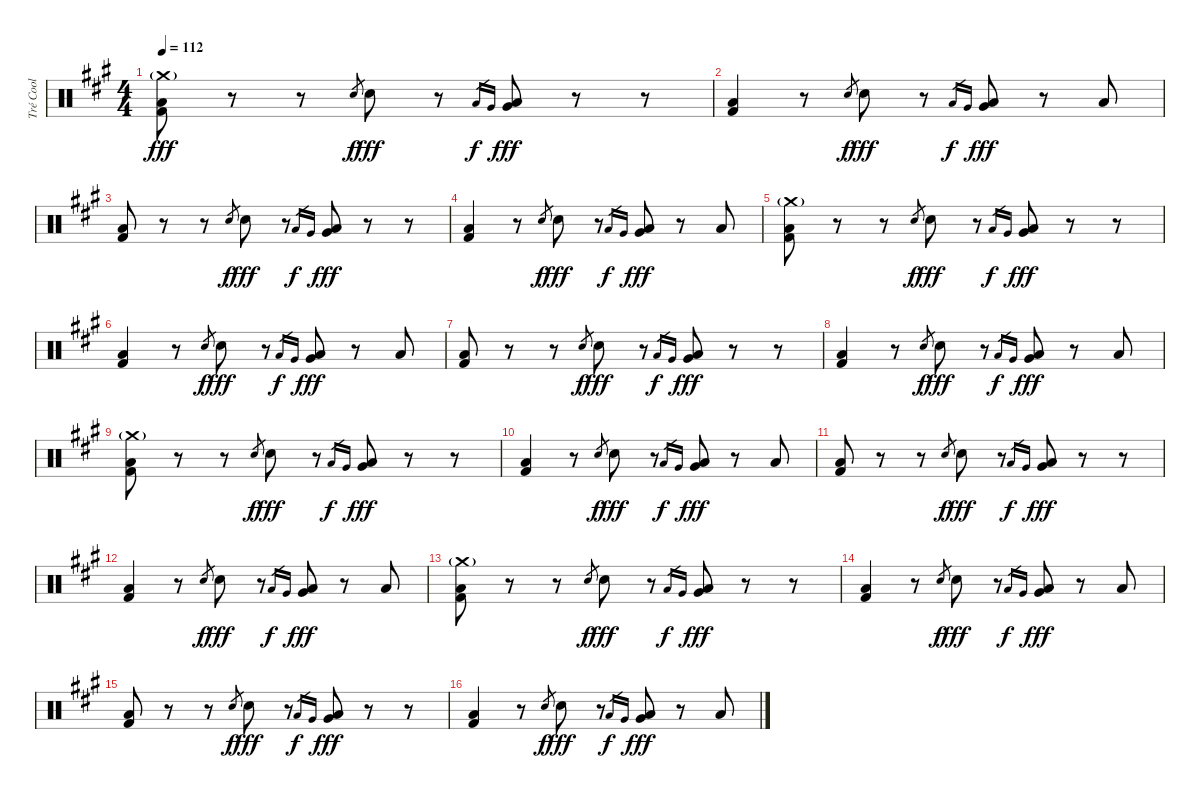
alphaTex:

\track ("Tré Cool" "Tré Cool") {instrument percussion}
\staff {score}
\articulation defaults
\ts (4 4)
\tempo 112
\clef neutral
\ks a
("Crash medium (hit)"{g} "Low Floor Tom (hit)" "Kick (hit) 2").8{dy fff} r.8 r.8 "Electric Snare (hit)".8{gr dy f} "Electric Snare (hit)".8{dy fff} r.8 "Low Floor Tom (hit)".16{gr dy f} "Very Low Tom (hit)".16{gr} ("Low Floor Tom (hit)" "Very Low Tom (hit)").8{dy fff} r.8 r.8 |
("Low Floor Tom (hit)" "Kick (hit) 2").4 r.8 "Electric Snare (hit)".8{gr dy f} "Electric Snare (hit)".8{dy fff} r.8 "Low Floor Tom (hit)".16{gr dy f} "Very Low Tom (hit)".16{gr} ("Low Floor Tom (hit)" "Very Low Tom (hit)").8{dy fff} r.8 "Low Tom (hit)".8 |
("Low Floor Tom (hit)" "Kick (hit) 2").8 r.8 r.8 "Electric Snare (hit)".8{gr dy f} "Electric Snare (hit)".8{dy fff} r.8 "Low Floor Tom (hit)".16{gr dy f} "Very Low Tom (hit)".16{gr} ("Low Floor Tom (hit)" "Very Low Tom (hit)").8{dy fff} r.8 r.8 |
("Low Floor Tom (hit)" "Kick (hit) 2").4 r.8 "Electric Snare (hit)".8{gr dy f} "Electric Snare (hit)".8{dy fff} r.8 "Low Floor Tom (hit)".16{gr dy f} "Very Low Tom (hit)".16{gr} ("Low Floor Tom (hit)" "Very Low Tom (hit)").8{dy fff} r.8 "Low Tom (hit)".8 |
("Crash medium (hit)"{g} "Low Floor Tom (hit)" "Kick (hit) 2").8 r.8 r.8 "Electric Snare (hit)".8{gr dy f} "Electric Snare (hit)".8{dy fff} r.8 "Low Floor Tom (hit)".16{gr dy f} "Very Low Tom (hit)".16{gr} ("Low Floor Tom (hit)" "Very Low Tom (hit)").8{dy fff} r.8 r.8 |
("Low Floor Tom (hit)" "Kick (hit) 2").4 r.8 "Electric Snare (hit)".8{gr dy f} "Electric Snare (hit)".8{dy fff} r.8 "Low Floor Tom (hit)".16{gr dy f} "Very Low Tom (hit)".16{gr} ("Low Floor Tom (hit)" "Very Low Tom (hit)").8{dy fff} r.8 "Low Tom (hit)".8 |
("Low Floor Tom (hit)" "Kick (hit) 2").8 r.8 r.8 "Electric Snare (hit)".8{gr dy f} "Electric Snare (hit)".8{dy fff} r.8 "Low Floor Tom (hit)".16{gr dy f} "Very Low Tom (hit)".16{gr} ("Low Floor Tom (hit)" "Very Low Tom (hit)").8{dy fff} r.8 r.8 |
("Low Floor Tom (hit)" "Kick (hit) 2").4 r.8 "Electric Snare (hit)".8{gr dy f} "Electric Snare (hit)".8{dy fff} r.8 "Low Floor Tom (hit)".16{gr dy f} "Very Low Tom (hit)".16{gr} ("Low Floor Tom (hit)" "Very Low Tom (hit)").8{dy fff} r.8 "Low Tom (hit)".8 |
("Crash medium (hit)"{g} "Low Floor Tom (hit)" "Kick (hit) 2").8 r.8 r.8 "Electric Snare (hit)".8{gr dy f} "Electric Snare (hit)".8{dy fff} r.8 "Low Floor Tom (hit)".16{gr dy f} "Very Low Tom (hit)".16{gr} ("Low Floor Tom (hit)" "Very Low Tom (hit)").8{dy fff} r.8 r.8 |
("Low Floor Tom (hit)" "Kick (hit) 2").4 r.8 "Electric Snare (hit)".8{gr dy f} "Electric Snare (hit)".8{dy fff} r.8 "Low Floor Tom (hit)".16{gr dy f} "Very Low Tom (hit)".16{gr} ("Low Floor Tom (hit)" "Very Low Tom (hit)").8{dy fff} r.8 "Low Tom (hit)".8 |
("Low Floor Tom (hit)" "Kick (hit) 2").8 r.8 r.8 "Electric Snare (hit)".8{gr dy f} "Electric Snare (hit)".8{dy fff} r.8 "Low Floor Tom (hit)".16{gr dy f} "Very Low Tom (hit)".16{gr} ("Low Floor Tom (hit)" "Very Low Tom (hit)").8{dy fff} r.8 r.8 |
("Low Floor Tom (hit)" "Kick (hit) 2").4 r.8 "Electric Snare (hit)".8{gr dy f} "Electric Snare (hit)".8{dy fff} r.8 "Low Floor Tom (hit)".16{gr dy f} "Very Low Tom (hit)".16{gr} ("Low Floor Tom (hit)" "Very Low Tom (hit)").8{dy fff} r.8 "Low Tom (hit)".8 |
("Crash medium (hit)"{g} "Low Floor Tom (hit)" "Kick (hit) 2").8 r.8 r.8 "Electric Snare (hit)".8{gr dy f} "Electric Snare (hit)".8{dy fff} r.8 "Low Floor Tom (hit)".16{gr dy f} "Very Low Tom (hit)".16{gr} ("Low Floor Tom (hit)" "Very Low Tom (hit)").8{dy fff} r.8 r.8 |
("Low Floor Tom (hit)" "Kick (hit) 2").4 r.8 "Electric Snare (hit)".8{gr dy f} "Electric Snare (hit)".8{dy fff} r.8 "Low Floor Tom (hit)".16{gr dy f} "Very Low Tom (hit)".16{gr} ("Low Floor Tom (hit)" "Very Low Tom (hit)").8{dy fff} r.8 "Low Tom (hit)".8 |
("Low Floor Tom (hit)" "Kick (hit) 2").8 r.8 r.8 "Electric Snare (hit)".8{gr dy f} "Electric Snare (hit)".8{dy fff} r.8 "Low Floor Tom (hit)".16{gr dy f} "Very Low Tom (hit)".16{gr} ("Low Floor Tom (hit)" "Very Low Tom (hit)").8{dy fff} r.8 r.8 |
("Low Floor Tom (hit)" "Kick (hit) 2").4 r.8 "Electric Snare (hit)".8{gr dy f} "Electric Snare (hit)".8{dy fff} r.8 "Low Floor Tom (hit)".16{gr dy f} "Very Low Tom (hit)".16{gr} ("Low Floor Tom (hit)" "Very Low Tom (hit)").8{dy fff} r.8 "Low Tom (hit)".8
